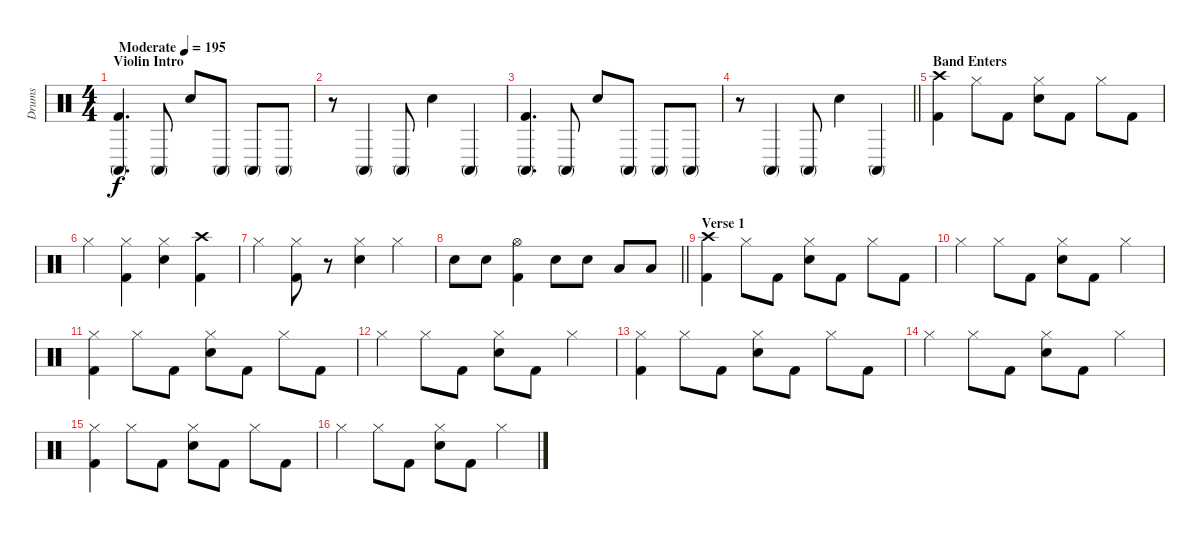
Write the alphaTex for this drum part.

\track ("Drums" "Drums") {instrument percussion}
\staff {score}
\articulation defaults
\ts (4 4)
\section ("" "Violin Intro")
\tempo (195 "Moderate")
\clef neutral
\ks c
("Kick (hit) 2" "Conga high (mute)").4{d dy f} "Conga high (mute)".8 "Hand Clap (hit)".8 "Conga high (mute)".8 "Conga high (mute)".8 "Conga high (mute)".8 |
r.8 "Conga high (mute)".4 "Conga high (mute)".8 "Hand Clap (hit)".4 "Conga high (mute)".4 |
("Kick (hit) 2" "Conga high (mute)").4{d} "Conga high (mute)".8 "Hand Clap (hit)".8 "Conga high (mute)".8 "Conga high (mute)".8 "Conga high (mute)".8 |
\barLineRight lightlight
r.8 "Conga high (mute)".4 "Conga high (mute)".8 "Hand Clap (hit)".4 "Conga high (mute)".4 |
\section ("" "Band Enters")
("Crash high (hit)" "Kick (hit) 2").4 "Hi-Hat (closed)".8 "Kick (hit) 2".8 ("Hi-Hat (closed)" "Snare (hit) 2").8 "Kick (hit) 2".8 "Hi-Hat (closed)".8 "Kick (hit) 2".8 |
"Hi-Hat (closed)".4 ("Hi-Hat (closed)" "Kick (hit) 2").4 ("Hi-Hat (closed)" "Snare (hit) 2").4 ("Crash high (hit)" "Kick (hit) 2").4 |
"Hi-Hat (closed)".4 ("Hi-Hat (closed)" "Kick (hit) 2").8 r.8 ("Hi-Hat (closed)" "Snare (hit) 2").4 "Hi-Hat (closed)".4 |
\barLineRight lightlight "Snare (hit) 2".8 "Snare (hit) 2".8
("Hi-Hat (open)" "Kick (hit) 2").4 "Snare (hit) 2".8 "Snare (hit) 2".8 "Low Floor Tom (hit)".8 "Low Floor Tom (hit)".8 |
\section ("" "Verse 1")
("Crash high (hit)" "Kick (hit) 2").4 "Hi-Hat (closed)".8 "Kick (hit) 2".8 ("Hi-Hat (closed)" "Hand Clap (hit)").8 "Kick (hit) 2".8 "Hi-Hat (closed)".8 "Kick (hit) 2".8 |
"Hi-Hat (closed)".4 "Hi-Hat (closed)".8 "Kick (hit) 2".8 ("Hi-Hat (closed)" "Snare (hit) 2").8 "Kick (hit) 2".8 "Hi-Hat (closed)".4 |
("Hi-Hat (closed)" "Kick (hit) 2").4 "Hi-Hat (closed)".8 "Kick (hit) 2".8 ("Hi-Hat (closed)" "Hand Clap (hit)").8 "Kick (hit) 2".8 "Hi-Hat (closed)".8 "Kick (hit) 2".8 |
"Hi-Hat (closed)".4 "Hi-Hat (closed)".8 "Kick (hit) 2".8 ("Hi-Hat (closed)" "Snare (hit) 2").8 "Kick (hit) 2".8 "Hi-Hat (closed)".4 |
("Hi-Hat (closed)" "Kick (hit) 2").4 "Hi-Hat (closed)".8 "Kick (hit) 2".8 ("Hi-Hat (closed)" "Hand Clap (hit)").8 "Kick (hit) 2".8 "Hi-Hat (closed)".8 "Kick (hit) 2".8 |
"Hi-Hat (closed)".4 "Hi-Hat (closed)".8 "Kick (hit) 2".8 ("Hi-Hat (closed)" "Snare (hit) 2").8 "Kick (hit) 2".8 "Hi-Hat (closed)".4 |
("Hi-Hat (closed)" "Kick (hit) 2").4 "Hi-Hat (closed)".8 "Kick (hit) 2".8 ("Hi-Hat (closed)" "Hand Clap (hit)").8 "Kick (hit) 2".8 "Hi-Hat (closed)".8 "Kick (hit) 2".8 |
"Hi-Hat (closed)".4 "Hi-Hat (closed)".8 "Kick (hit) 2".8 ("Hi-Hat (closed)" "Snare (hit) 2").8 "Kick (hit) 2".8 "Hi-Hat (closed)".4
